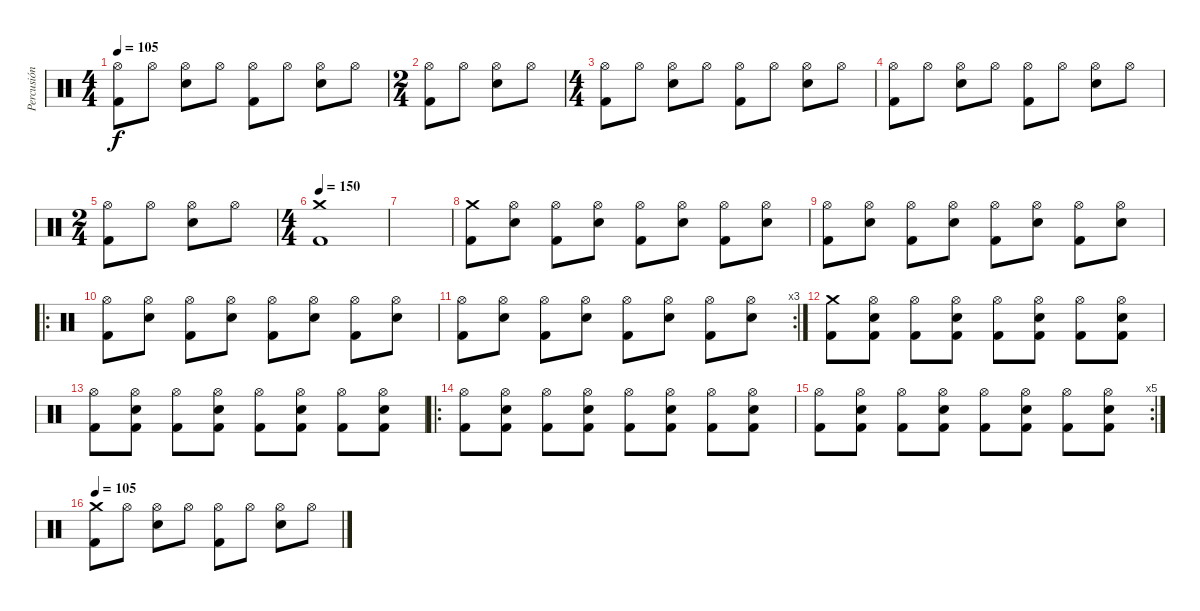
\track ("Percusión" "Percusión") {instrument percussion}
\staff {score}
\articulation defaults
\ts (4 4)
\tempo 105
\clef neutral
\ks c
("Hi-Hat (open)" "Kick (hit) 2").8{dy f} "Hi-Hat (open)".8 ("Hi-Hat (open)" "Electric Snare (hit)").8 "Hi-Hat (open)".8 ("Hi-Hat (open)" "Kick (hit) 2").8 "Hi-Hat (open)".8 ("Hi-Hat (open)" "Electric Snare (hit)").8 "Hi-Hat (open)".8 |
\ts (2 4)
("Hi-Hat (open)" "Kick (hit) 2").8 "Hi-Hat (open)".8 ("Hi-Hat (open)" "Electric Snare (hit)").8 "Hi-Hat (open)".8 |
\ts (4 4)
("Hi-Hat (open)" "Kick (hit) 2").8 "Hi-Hat (open)".8 ("Hi-Hat (open)" "Electric Snare (hit)").8 "Hi-Hat (open)".8 ("Hi-Hat (open)" "Kick (hit) 2").8 "Hi-Hat (open)".8 ("Hi-Hat (open)" "Electric Snare (hit)").8 "Hi-Hat (open)".8 |
("Hi-Hat (open)" "Kick (hit) 2").8 "Hi-Hat (open)".8 ("Hi-Hat (open)" "Electric Snare (hit)").8 "Hi-Hat (open)".8 ("Hi-Hat (open)" "Kick (hit) 2").8 "Hi-Hat (open)".8 ("Hi-Hat (open)" "Electric Snare (hit)").8 "Hi-Hat (open)".8 |
\ts (2 4)
("Hi-Hat (open)" "Kick (hit) 2").8 "Hi-Hat (open)".8 ("Hi-Hat (open)" "Electric Snare (hit)").8 "Hi-Hat (open)".8 |
\ts (4 4)
\tempo 150
("Crash medium (hit)" "Kick (hit) 2").1 |
|
("Crash medium (hit)" "Kick (hit) 2").8 ("Hi-Hat (open)" "Electric Snare (hit)").8 ("Hi-Hat (open)" "Kick (hit) 2").8 ("Hi-Hat (open)" "Electric Snare (hit)").8 ("Hi-Hat (open)" "Kick (hit) 2").8 ("Hi-Hat (open)" "Electric Snare (hit)").8 ("Hi-Hat (open)" "Kick (hit) 2").8 ("Hi-Hat (open)" "Electric Snare (hit)").8 |
("Hi-Hat (open)" "Kick (hit) 2").8 ("Hi-Hat (open)" "Electric Snare (hit)").8 ("Hi-Hat (open)" "Kick (hit) 2").8 ("Hi-Hat (open)" "Electric Snare (hit)").8 ("Hi-Hat (open)" "Kick (hit) 2").8 ("Hi-Hat (open)" "Electric Snare (hit)").8 ("Hi-Hat (open)" "Kick (hit) 2").8 ("Hi-Hat (open)" "Electric Snare (hit)").8 |
\ro
("Hi-Hat (open)" "Kick (hit) 2").8 ("Hi-Hat (open)" "Electric Snare (hit)").8 ("Hi-Hat (open)" "Kick (hit) 2").8 ("Hi-Hat (open)" "Electric Snare (hit)").8 ("Hi-Hat (open)" "Kick (hit) 2").8 ("Hi-Hat (open)" "Electric Snare (hit)").8 ("Hi-Hat (open)" "Kick (hit) 2").8 ("Hi-Hat (open)" "Electric Snare (hit)").8 |
\rc 3
("Hi-Hat (open)" "Kick (hit) 2").8 ("Hi-Hat (open)" "Electric Snare (hit)").8 ("Hi-Hat (open)" "Kick (hit) 2").8 ("Hi-Hat (open)" "Electric Snare (hit)").8 ("Hi-Hat (open)" "Kick (hit) 2").8 ("Hi-Hat (open)" "Electric Snare (hit)").8 ("Hi-Hat (open)" "Kick (hit) 2").8 ("Hi-Hat (open)" "Electric Snare (hit)").8 |
("Crash medium (hit)" "Kick (hit) 2").8 ("Hi-Hat (open)" "Electric Snare (hit)" "Kick (hit) 2").8 ("Hi-Hat (open)" "Kick (hit) 2").8 ("Hi-Hat (open)" "Electric Snare (hit)" "Kick (hit) 2").8 ("Hi-Hat (open)" "Kick (hit) 2").8 ("Hi-Hat (open)" "Electric Snare (hit)" "Kick (hit) 2").8 ("Hi-Hat (open)" "Kick (hit) 2").8 ("Hi-Hat (open)" "Electric Snare (hit)" "Kick (hit) 2").8 |
("Hi-Hat (open)" "Kick (hit) 2").8 ("Hi-Hat (open)" "Electric Snare (hit)" "Kick (hit) 2").8 ("Hi-Hat (open)" "Kick (hit) 2").8 ("Hi-Hat (open)" "Electric Snare (hit)" "Kick (hit) 2").8 ("Hi-Hat (open)" "Kick (hit) 2").8 ("Hi-Hat (open)" "Electric Snare (hit)" "Kick (hit) 2").8 ("Hi-Hat (open)" "Kick (hit) 2").8 ("Hi-Hat (open)" "Electric Snare (hit)" "Kick (hit) 2").8 |
\ro
("Hi-Hat (open)" "Kick (hit) 2").8 ("Hi-Hat (open)" "Electric Snare (hit)" "Kick (hit) 2").8 ("Hi-Hat (open)" "Kick (hit) 2").8 ("Hi-Hat (open)" "Electric Snare (hit)" "Kick (hit) 2").8 ("Hi-Hat (open)" "Kick (hit) 2").8 ("Hi-Hat (open)" "Electric Snare (hit)" "Kick (hit) 2").8 ("Hi-Hat (open)" "Kick (hit) 2").8 ("Hi-Hat (open)" "Electric Snare (hit)" "Kick (hit) 2").8 |
\rc 5
("Hi-Hat (open)" "Kick (hit) 2").8 ("Hi-Hat (open)" "Electric Snare (hit)" "Kick (hit) 2").8 ("Hi-Hat (open)" "Kick (hit) 2").8 ("Hi-Hat (open)" "Electric Snare (hit)" "Kick (hit) 2").8 ("Hi-Hat (open)" "Kick (hit) 2").8 ("Hi-Hat (open)" "Electric Snare (hit)" "Kick (hit) 2").8 ("Hi-Hat (open)" "Kick (hit) 2").8 ("Hi-Hat (open)" "Electric Snare (hit)" "Kick (hit) 2").8 |
\tempo 105
("Crash medium (hit)" "Kick (hit) 2").8 "Hi-Hat (open)".8 ("Hi-Hat (open)" "Electric Snare (hit)").8 "Hi-Hat (open)".8 ("Hi-Hat (open)" "Kick (hit) 2").8 "Hi-Hat (open)".8 ("Hi-Hat (open)" "Electric Snare (hit)").8 "Hi-Hat (open)".8
